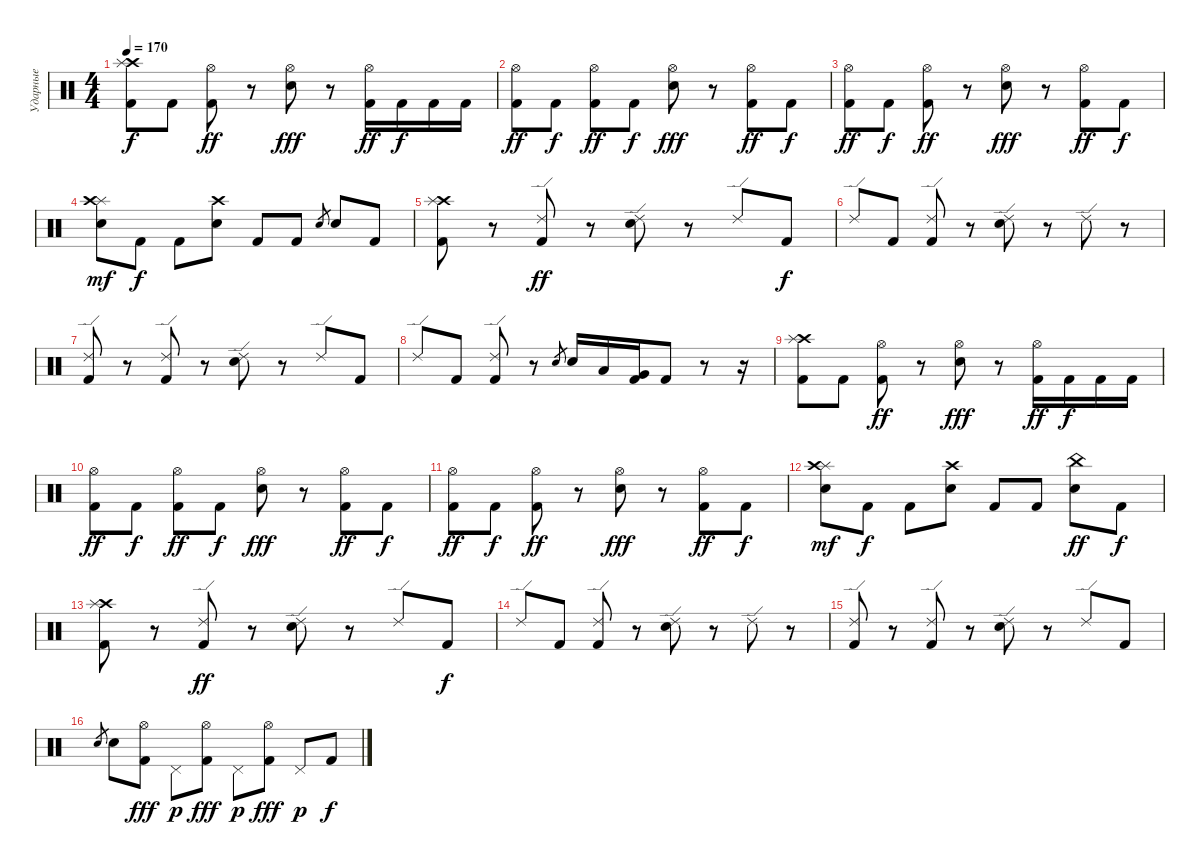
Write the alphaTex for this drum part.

\track ("Ударные" "Ударные") {instrument percussion}
\staff {score}
\articulation defaults
\ts (4 4)
\tempo 170
\clef neutral
\ks c
("Crash high (hit)" "Splash (hit)" "Kick (hit) 2").8{dy f} "Kick (hit) 2".8 ("Hi-Hat (open)" "Kick (hit) 2").8{dy ff} r.8 ("Hi-Hat (open)" "Electric Snare (hit)").8{dy fff} r.8 ("Hi-Hat (open)" "Kick (hit) 2").16{dy ff} "Kick (hit) 2".16{dy f} "Kick (hit) 2".16 "Kick (hit) 2".16 |
("Hi-Hat (open)" "Kick (hit) 2").8{dy ff} "Kick (hit) 2".8{dy f} ("Hi-Hat (open)" "Kick (hit) 2").8{dy ff} "Kick (hit) 2".8{dy f} ("Hi-Hat (open)" "Electric Snare (hit)").8{dy fff} r.8 ("Hi-Hat (open)" "Kick (hit) 2").8{dy ff} "Kick (hit) 2".8{dy f} |
("Hi-Hat (open)" "Kick (hit) 2").8{dy ff} "Kick (hit) 2".8{dy f} ("Hi-Hat (open)" "Kick (hit) 2").8{dy ff} r.8 ("Hi-Hat (open)" "Electric Snare (hit)").8{dy fff} r.8 ("Hi-Hat (open)" "Kick (hit) 2").8{dy ff} "Kick (hit) 2".8{dy f} |
("Splash (hit)" "Crash high (hit)" "Electric Snare (hit)").8{dy mf} "Kick (hit) 2".8{dy f} "Kick (hit) 2".8 ("Crash high (hit)" "Electric Snare (hit)").8 "Kick (hit) 2".8 "Kick (hit) 2".8 "Electric Snare (hit)".8{gr} "Electric Snare (hit)".8 "Kick (hit) 2".8 |
("Crash high (hit)" "Splash (hit)" "Kick (hit) 2").8 r.8 ("Ride (edge) 2" "Kick (hit) 2").8{dy ff} r.8 ("Ride (edge) 2" "Electric Snare (hit)").8 r.8 "Ride (edge) 2".8 "Kick (hit) 2".8{dy f} |
"Ride (edge) 2".8 "Kick (hit) 2".8 ("Ride (edge) 2" "Kick (hit) 2").8 r.8 ("Ride (edge) 2" "Electric Snare (hit)").8 r.8 "Ride (edge) 2".8 r.8 |
("Ride (edge) 2" "Kick (hit) 2").8 r.8 ("Ride (edge) 2" "Kick (hit) 2").8 r.8 ("Ride (edge) 2" "Electric Snare (hit)").8 r.8 "Ride (edge) 2".8 "Kick (hit) 2".8 |
"Ride (edge) 2".8 "Kick (hit) 2".8 ("Ride (edge) 2" "Kick (hit) 2").8 r.8 "Electric Snare (hit)".8{gr} "Electric Snare (hit)".16 "Low Tom (hit)".16 ("Very Low Tom (hit)" "Kick (hit) 2").16 "Kick (hit) 2".8 r.8 r.16 |
("Crash high (hit)" "Splash (hit)" "Kick (hit) 2").8 "Kick (hit) 2".8 ("Hi-Hat (open)" "Kick (hit) 2").8{dy ff} r.8 ("Hi-Hat (open)" "Electric Snare (hit)").8{dy fff} r.8 ("Hi-Hat (open)" "Kick (hit) 2").16{dy ff} "Kick (hit) 2".16{dy f} "Kick (hit) 2".16 "Kick (hit) 2".16 |
("Hi-Hat (open)" "Kick (hit) 2").8{dy ff} "Kick (hit) 2".8{dy f} ("Hi-Hat (open)" "Kick (hit) 2").8{dy ff} "Kick (hit) 2".8{dy f} ("Hi-Hat (open)" "Electric Snare (hit)").8{dy fff} r.8 ("Hi-Hat (open)" "Kick (hit) 2").8{dy ff} "Kick (hit) 2".8{dy f} |
("Hi-Hat (open)" "Kick (hit) 2").8{dy ff} "Kick (hit) 2".8{dy f} ("Hi-Hat (open)" "Kick (hit) 2").8{dy ff} r.8 ("Hi-Hat (open)" "Electric Snare (hit)").8{dy fff} r.8 ("Hi-Hat (open)" "Kick (hit) 2").8{dy ff} "Kick (hit) 2".8{dy f} |
("Splash (hit)" "Crash high (hit)" "Electric Snare (hit)").8{dy mf} "Kick (hit) 2".8{dy f} "Kick (hit) 2".8 ("Crash high (hit)" "Electric Snare (hit)").8 "Kick (hit) 2".8 "Kick (hit) 2".8 ("China (hit)" "Electric Snare (hit)").8{dy ff} "Kick (hit) 2".8{dy f} |
("Crash high (hit)" "Splash (hit)" "Kick (hit) 2").8 r.8 ("Ride (edge) 2" "Kick (hit) 2").8{dy ff} r.8 ("Ride (edge) 2" "Electric Snare (hit)").8 r.8 "Ride (edge) 2".8 "Kick (hit) 2".8{dy f} |
"Ride (edge) 2".8 "Kick (hit) 2".8 ("Ride (edge) 2" "Kick (hit) 2").8 r.8 ("Ride (edge) 2" "Electric Snare (hit)").8 r.8 "Ride (edge) 2".8 r.8 |
("Ride (edge) 2" "Kick (hit) 2").8 r.8 ("Ride (edge) 2" "Kick (hit) 2").8 r.8 ("Ride (edge) 2" "Electric Snare (hit)").8 r.8 "Ride (edge) 2".8 "Kick (hit) 2".8 |
"Electric Snare (hit)".8{gr} "Electric Snare (hit)".8 ("Hi-Hat (open)" "Kick (hit) 2").8{dy fff} "Pedal Hi-Hat (hit)".8{dy p} ("Hi-Hat (open)" "Kick (hit) 2").8{dy fff} "Pedal Hi-Hat (hit)".8{dy p} ("Hi-Hat (open)" "Kick (hit) 2").8{dy fff} "Pedal Hi-Hat (hit)".8{dy p} "Kick (hit) 2".8{dy f}
